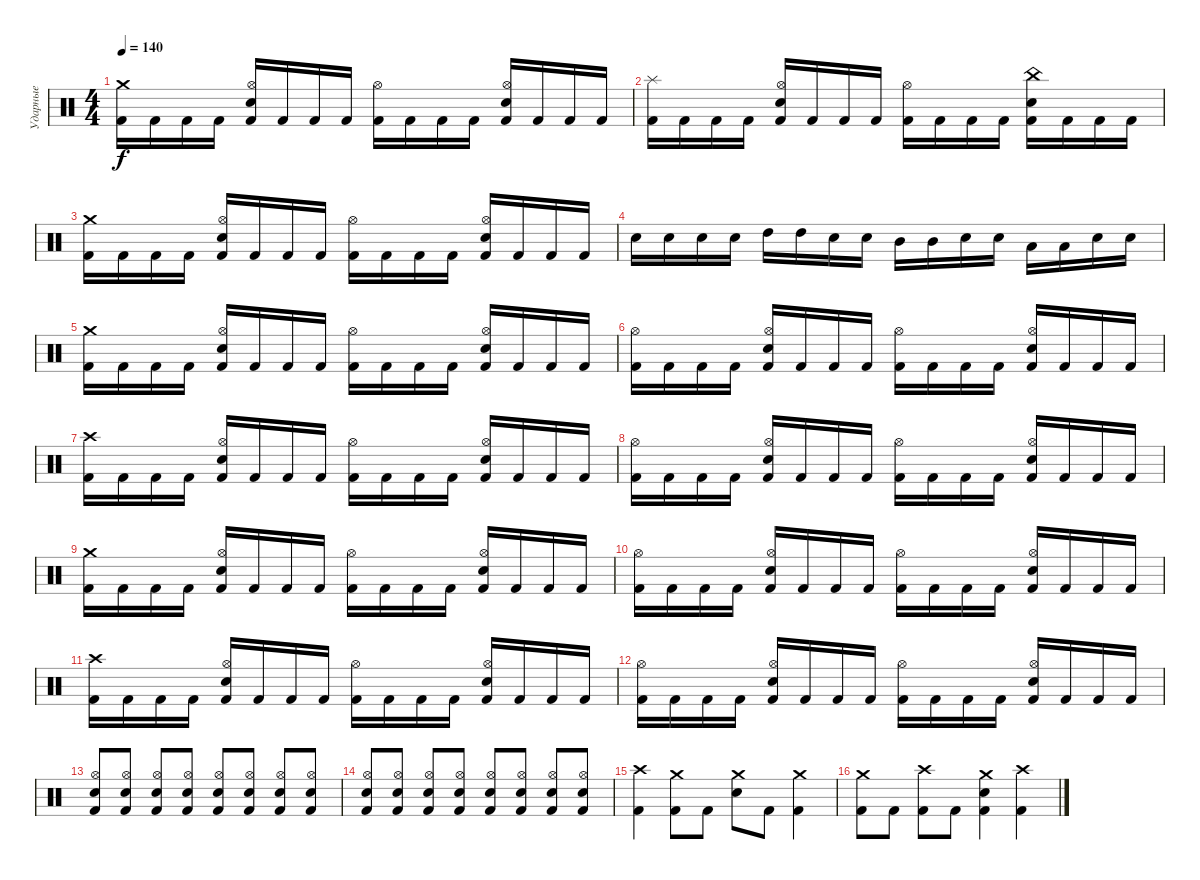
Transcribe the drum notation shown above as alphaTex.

\track ("Ударные" "Ударные") {instrument percussion}
\staff {score}
\articulation defaults
\ts (4 4)
\tempo 140
\clef neutral
\ks c
("Crash medium (hit)" "Kick (hit) 2").16{dy f} "Kick (hit) 2".16 "Kick (hit) 2".16 "Kick (hit) 2".16 ("Hi-Hat (open)" "Electric Snare (hit)" "Kick (hit) 2").16 "Kick (hit) 2".16 "Kick (hit) 2".16 "Kick (hit) 2".16 ("Hi-Hat (open)" "Kick (hit) 2").16 "Kick (hit) 2".16 "Kick (hit) 2".16 "Kick (hit) 2".16 ("Hi-Hat (open)" "Electric Snare (hit)" "Kick (hit) 2").16 "Kick (hit) 2".16 "Kick (hit) 2".16 "Kick (hit) 2".16 |
("Splash (hit)" "Kick (hit) 2").16 "Kick (hit) 2".16 "Kick (hit) 2".16 "Kick (hit) 2".16 ("Hi-Hat (open)" "Electric Snare (hit)" "Kick (hit) 2").16 "Kick (hit) 2".16 "Kick (hit) 2".16 "Kick (hit) 2".16 ("Hi-Hat (open)" "Kick (hit) 2").16 "Kick (hit) 2".16 "Kick (hit) 2".16 "Kick (hit) 2".16 ("China (hit)" "Electric Snare (hit)" "Kick (hit) 2").16 "Kick (hit) 2".16 "Kick (hit) 2".16 "Kick (hit) 2".16 |
("Crash medium (hit)" "Kick (hit) 2").16 "Kick (hit) 2".16 "Kick (hit) 2".16 "Kick (hit) 2".16 ("Hi-Hat (open)" "Electric Snare (hit)" "Kick (hit) 2").16 "Kick (hit) 2".16 "Kick (hit) 2".16 "Kick (hit) 2".16 ("Hi-Hat (open)" "Kick (hit) 2").16 "Kick (hit) 2".16 "Kick (hit) 2".16 "Kick (hit) 2".16 ("Hi-Hat (open)" "Electric Snare (hit)" "Kick (hit) 2").16 "Kick (hit) 2".16 "Kick (hit) 2".16 "Kick (hit) 2".16 |
"Electric Snare (hit)".16 "Electric Snare (hit)".16 "Electric Snare (hit)".16 "Electric Snare (hit)".16 "High Tom (hit)".16 "High Tom (hit)".16 "Electric Snare (hit)".16 "Electric Snare (hit)".16 "Mid Tom (hit)".16 "Mid Tom (hit)".16 "Electric Snare (hit)".16 "Electric Snare (hit)".16 "Low Tom (hit)".16 "Low Tom (hit)".16 "Electric Snare (hit)".16 "Electric Snare (hit)".16 |
("Crash medium (hit)" "Kick (hit) 2").16 "Kick (hit) 2".16 "Kick (hit) 2".16 "Kick (hit) 2".16 ("Hi-Hat (open)" "Electric Snare (hit)" "Kick (hit) 2").16 "Kick (hit) 2".16 "Kick (hit) 2".16 "Kick (hit) 2".16 ("Hi-Hat (open)" "Kick (hit) 2").16 "Kick (hit) 2".16 "Kick (hit) 2".16 "Kick (hit) 2".16 ("Hi-Hat (open)" "Electric Snare (hit)" "Kick (hit) 2").16 "Kick (hit) 2".16 "Kick (hit) 2".16 "Kick (hit) 2".16 |
("Hi-Hat (open)" "Kick (hit) 2").16 "Kick (hit) 2".16 "Kick (hit) 2".16 "Kick (hit) 2".16 ("Hi-Hat (open)" "Electric Snare (hit)" "Kick (hit) 2").16 "Kick (hit) 2".16 "Kick (hit) 2".16 "Kick (hit) 2".16 ("Hi-Hat (open)" "Kick (hit) 2").16 "Kick (hit) 2".16 "Kick (hit) 2".16 "Kick (hit) 2".16 ("Hi-Hat (open)" "Electric Snare (hit)" "Kick (hit) 2").16 "Kick (hit) 2".16 "Kick (hit) 2".16 "Kick (hit) 2".16 |
("Crash high (hit)" "Kick (hit) 2").16 "Kick (hit) 2".16 "Kick (hit) 2".16 "Kick (hit) 2".16 ("Hi-Hat (open)" "Electric Snare (hit)" "Kick (hit) 2").16 "Kick (hit) 2".16 "Kick (hit) 2".16 "Kick (hit) 2".16 ("Hi-Hat (open)" "Kick (hit) 2").16 "Kick (hit) 2".16 "Kick (hit) 2".16 "Kick (hit) 2".16 ("Hi-Hat (open)" "Electric Snare (hit)" "Kick (hit) 2").16 "Kick (hit) 2".16 "Kick (hit) 2".16 "Kick (hit) 2".16 |
("Hi-Hat (open)" "Kick (hit) 2").16 "Kick (hit) 2".16 "Kick (hit) 2".16 "Kick (hit) 2".16 ("Hi-Hat (open)" "Electric Snare (hit)" "Kick (hit) 2").16 "Kick (hit) 2".16 "Kick (hit) 2".16 "Kick (hit) 2".16 ("Hi-Hat (open)" "Kick (hit) 2").16 "Kick (hit) 2".16 "Kick (hit) 2".16 "Kick (hit) 2".16 ("Hi-Hat (open)" "Electric Snare (hit)" "Kick (hit) 2").16 "Kick (hit) 2".16 "Kick (hit) 2".16 "Kick (hit) 2".16 |
("Crash medium (hit)" "Kick (hit) 2").16 "Kick (hit) 2".16 "Kick (hit) 2".16 "Kick (hit) 2".16 ("Hi-Hat (open)" "Electric Snare (hit)" "Kick (hit) 2").16 "Kick (hit) 2".16 "Kick (hit) 2".16 "Kick (hit) 2".16 ("Hi-Hat (open)" "Kick (hit) 2").16 "Kick (hit) 2".16 "Kick (hit) 2".16 "Kick (hit) 2".16 ("Hi-Hat (open)" "Electric Snare (hit)" "Kick (hit) 2").16 "Kick (hit) 2".16 "Kick (hit) 2".16 "Kick (hit) 2".16 |
("Hi-Hat (open)" "Kick (hit) 2").16 "Kick (hit) 2".16 "Kick (hit) 2".16 "Kick (hit) 2".16 ("Hi-Hat (open)" "Electric Snare (hit)" "Kick (hit) 2").16 "Kick (hit) 2".16 "Kick (hit) 2".16 "Kick (hit) 2".16 ("Hi-Hat (open)" "Kick (hit) 2").16 "Kick (hit) 2".16 "Kick (hit) 2".16 "Kick (hit) 2".16 ("Hi-Hat (open)" "Electric Snare (hit)" "Kick (hit) 2").16 "Kick (hit) 2".16 "Kick (hit) 2".16 "Kick (hit) 2".16 |
("Crash high (hit)" "Kick (hit) 2").16 "Kick (hit) 2".16 "Kick (hit) 2".16 "Kick (hit) 2".16 ("Hi-Hat (open)" "Electric Snare (hit)" "Kick (hit) 2").16 "Kick (hit) 2".16 "Kick (hit) 2".16 "Kick (hit) 2".16 ("Hi-Hat (open)" "Kick (hit) 2").16 "Kick (hit) 2".16 "Kick (hit) 2".16 "Kick (hit) 2".16 ("Hi-Hat (open)" "Electric Snare (hit)" "Kick (hit) 2").16 "Kick (hit) 2".16 "Kick (hit) 2".16 "Kick (hit) 2".16 |
("Hi-Hat (open)" "Kick (hit) 2").16 "Kick (hit) 2".16 "Kick (hit) 2".16 "Kick (hit) 2".16 ("Hi-Hat (open)" "Electric Snare (hit)" "Kick (hit) 2").16 "Kick (hit) 2".16 "Kick (hit) 2".16 "Kick (hit) 2".16 ("Hi-Hat (open)" "Kick (hit) 2").16 "Kick (hit) 2".16 "Kick (hit) 2".16 "Kick (hit) 2".16 ("Hi-Hat (open)" "Electric Snare (hit)" "Kick (hit) 2").16 "Kick (hit) 2".16 "Kick (hit) 2".16 "Kick (hit) 2".16 |
("Hi-Hat (open)" "Electric Snare (hit)" "Kick (hit) 2").8 ("Hi-Hat (open)" "Electric Snare (hit)" "Kick (hit) 2").8 ("Hi-Hat (open)" "Electric Snare (hit)" "Kick (hit) 2").8 ("Hi-Hat (open)" "Electric Snare (hit)" "Kick (hit) 2").8 ("Hi-Hat (open)" "Electric Snare (hit)" "Kick (hit) 2").8 ("Hi-Hat (open)" "Electric Snare (hit)" "Kick (hit) 2").8 ("Hi-Hat (open)" "Electric Snare (hit)" "Kick (hit) 2").8 ("Hi-Hat (open)" "Electric Snare (hit)" "Kick (hit) 2").8 |
("Hi-Hat (open)" "Electric Snare (hit)" "Kick (hit) 2").8 ("Hi-Hat (open)" "Electric Snare (hit)" "Kick (hit) 2").8 ("Hi-Hat (open)" "Electric Snare (hit)" "Kick (hit) 2").8 ("Hi-Hat (open)" "Electric Snare (hit)" "Kick (hit) 2").8 ("Hi-Hat (open)" "Electric Snare (hit)" "Kick (hit) 2").8 ("Hi-Hat (open)" "Electric Snare (hit)" "Kick (hit) 2").8 ("Hi-Hat (open)" "Electric Snare (hit)" "Kick (hit) 2").8 ("Hi-Hat (open)" "Electric Snare (hit)" "Kick (hit) 2").8 |
("Crash high (hit)" "Kick (hit) 2").4 ("Crash medium (hit)" "Kick (hit) 2").8 "Kick (hit) 2".8 ("Crash medium (hit)" "Electric Snare (hit)").8 "Kick (hit) 2".8 ("Crash medium (hit)" "Kick (hit) 2").4 |
("Crash medium (hit)" "Kick (hit) 2").8 "Kick (hit) 2".8 ("Crash high (hit)" "Kick (hit) 2").8 "Kick (hit) 2".8 ("Crash medium (hit)" "Electric Snare (hit)" "Kick (hit) 2").4 ("Crash high (hit)" "Kick (hit) 2").4
